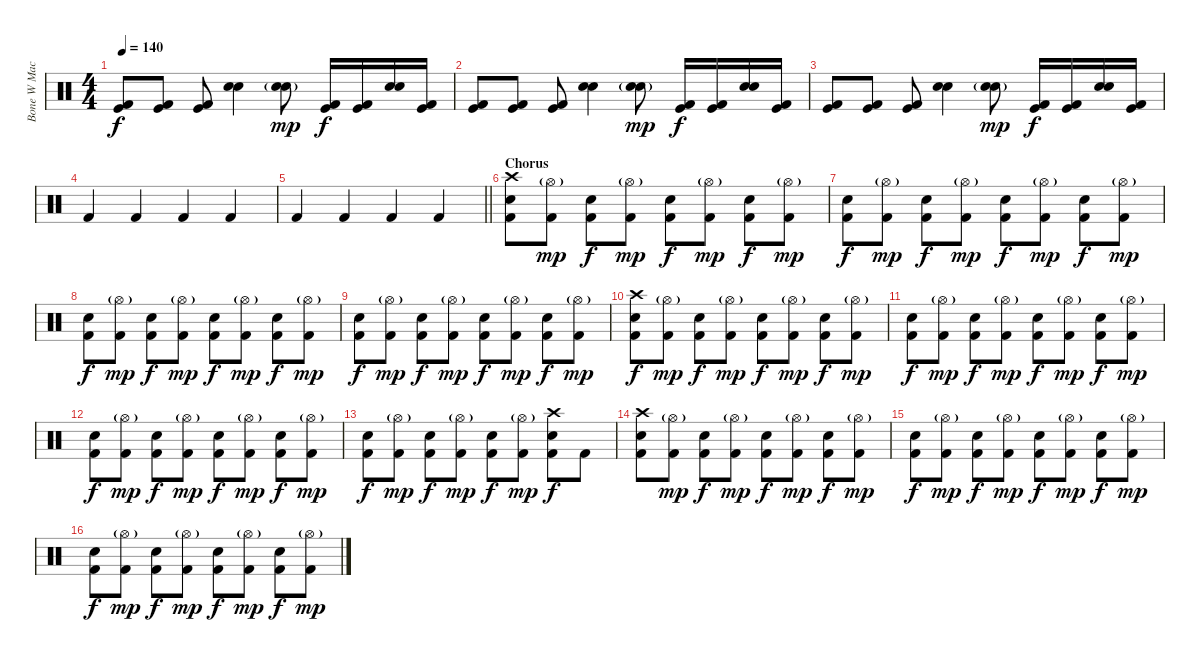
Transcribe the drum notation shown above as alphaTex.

\track ("Bone W Machine" "Bone W Mac") {instrument percussion}
\staff {score}
\articulation defaults
\ts (4 4)
\tempo 140
\clef neutral
\ks c
("Kick (hit)" "Kick (hit) 2").8{dy f} ("Kick (hit)" "Kick (hit) 2").8 ("Kick (hit)" "Kick (hit) 2").8 ("Snare (hit) 2" "Electric Snare (hit)").4 ("Snare (hit) 2"{g} "Electric Snare (hit)"{g}).8{dy mp} ("Kick (hit)" "Kick (hit) 2").16{dy f} ("Kick (hit)" "Kick (hit) 2").16 ("Snare (hit) 2" "Electric Snare (hit)").16 ("Kick (hit)" "Kick (hit) 2").16 |
("Kick (hit)" "Kick (hit) 2").8 ("Kick (hit)" "Kick (hit) 2").8 ("Kick (hit)" "Kick (hit) 2").8 ("Snare (hit) 2" "Electric Snare (hit)").4 ("Snare (hit) 2"{g} "Electric Snare (hit)"{g}).8{dy mp} ("Kick (hit)" "Kick (hit) 2").16{dy f} ("Kick (hit)" "Kick (hit) 2").16 ("Snare (hit) 2" "Electric Snare (hit)").16 ("Kick (hit)" "Kick (hit) 2").16 |
("Kick (hit)" "Kick (hit) 2").8 ("Kick (hit)" "Kick (hit) 2").8 ("Kick (hit)" "Kick (hit) 2").8 ("Snare (hit) 2" "Electric Snare (hit)").4 ("Snare (hit) 2"{g} "Electric Snare (hit)"{g}).8{dy mp} ("Kick (hit)" "Kick (hit) 2").16{dy f} ("Kick (hit)" "Kick (hit) 2").16 ("Snare (hit) 2" "Electric Snare (hit)").16 ("Kick (hit)" "Kick (hit) 2").16 |
"Kick (hit) 2".4 "Kick (hit) 2".4 "Kick (hit) 2".4 "Kick (hit) 2".4 |
\barLineRight lightlight "Kick (hit) 2".4 "Kick (hit) 2".4 "Kick (hit) 2".4 "Kick (hit) 2".4
|
\section ("" "Chorus")
("Crash high (hit)" "Electric Snare (hit)" "Kick (hit) 2").8 ("Hi-Hat (open)"{g} "Kick (hit) 2").8{dy mp} ("Electric Snare (hit)" "Kick (hit) 2").8{dy f} ("Hi-Hat (open)"{g} "Kick (hit) 2").8{dy mp} ("Electric Snare (hit)" "Kick (hit) 2").8{dy f} ("Hi-Hat (open)"{g} "Kick (hit) 2").8{dy mp} ("Electric Snare (hit)" "Kick (hit) 2").8{dy f} ("Hi-Hat (open)"{g} "Kick (hit) 2").8{dy mp} |
("Electric Snare (hit)" "Kick (hit) 2").8{dy f} ("Hi-Hat (open)"{g} "Kick (hit) 2").8{dy mp} ("Electric Snare (hit)" "Kick (hit) 2").8{dy f} ("Hi-Hat (open)"{g} "Kick (hit) 2").8{dy mp} ("Electric Snare (hit)" "Kick (hit) 2").8{dy f} ("Hi-Hat (open)"{g} "Kick (hit) 2").8{dy mp} ("Electric Snare (hit)" "Kick (hit) 2").8{dy f} ("Hi-Hat (open)"{g} "Kick (hit) 2").8{dy mp} |
("Electric Snare (hit)" "Kick (hit) 2").8{dy f} ("Hi-Hat (open)"{g} "Kick (hit) 2").8{dy mp} ("Electric Snare (hit)" "Kick (hit) 2").8{dy f} ("Hi-Hat (open)"{g} "Kick (hit) 2").8{dy mp} ("Electric Snare (hit)" "Kick (hit) 2").8{dy f} ("Hi-Hat (open)"{g} "Kick (hit) 2").8{dy mp} ("Electric Snare (hit)" "Kick (hit) 2").8{dy f} ("Hi-Hat (open)"{g} "Kick (hit) 2").8{dy mp} |
("Electric Snare (hit)" "Kick (hit) 2").8{dy f} ("Hi-Hat (open)"{g} "Kick (hit) 2").8{dy mp} ("Electric Snare (hit)" "Kick (hit) 2").8{dy f} ("Hi-Hat (open)"{g} "Kick (hit) 2").8{dy mp} ("Electric Snare (hit)" "Kick (hit) 2").8{dy f} ("Hi-Hat (open)"{g} "Kick (hit) 2").8{dy mp} ("Electric Snare (hit)" "Kick (hit) 2").8{dy f} ("Hi-Hat (open)"{g} "Kick (hit) 2").8{dy mp} |
("Crash high (hit)" "Electric Snare (hit)" "Kick (hit) 2").8{dy f} ("Hi-Hat (open)"{g} "Kick (hit) 2").8{dy mp} ("Electric Snare (hit)" "Kick (hit) 2").8{dy f} ("Hi-Hat (open)"{g} "Kick (hit) 2").8{dy mp} ("Electric Snare (hit)" "Kick (hit) 2").8{dy f} ("Hi-Hat (open)"{g} "Kick (hit) 2").8{dy mp} ("Electric Snare (hit)" "Kick (hit) 2").8{dy f} ("Hi-Hat (open)"{g} "Kick (hit) 2").8{dy mp} |
("Electric Snare (hit)" "Kick (hit) 2").8{dy f} ("Hi-Hat (open)"{g} "Kick (hit) 2").8{dy mp} ("Electric Snare (hit)" "Kick (hit) 2").8{dy f} ("Hi-Hat (open)"{g} "Kick (hit) 2").8{dy mp} ("Electric Snare (hit)" "Kick (hit) 2").8{dy f} ("Hi-Hat (open)"{g} "Kick (hit) 2").8{dy mp} ("Electric Snare (hit)" "Kick (hit) 2").8{dy f} ("Hi-Hat (open)"{g} "Kick (hit) 2").8{dy mp} |
("Electric Snare (hit)" "Kick (hit) 2").8{dy f} ("Hi-Hat (open)"{g} "Kick (hit) 2").8{dy mp} ("Electric Snare (hit)" "Kick (hit) 2").8{dy f} ("Hi-Hat (open)"{g} "Kick (hit) 2").8{dy mp} ("Electric Snare (hit)" "Kick (hit) 2").8{dy f} ("Hi-Hat (open)"{g} "Kick (hit) 2").8{dy mp} ("Electric Snare (hit)" "Kick (hit) 2").8{dy f} ("Hi-Hat (open)"{g} "Kick (hit) 2").8{dy mp} |
("Electric Snare (hit)" "Kick (hit) 2").8{dy f} ("Hi-Hat (open)"{g} "Kick (hit) 2").8{dy mp} ("Electric Snare (hit)" "Kick (hit) 2").8{dy f} ("Hi-Hat (open)"{g} "Kick (hit) 2").8{dy mp} ("Electric Snare (hit)" "Kick (hit) 2").8{dy f} ("Hi-Hat (open)"{g} "Kick (hit) 2").8{dy mp} ("Crash high (hit)" "Electric Snare (hit)" "Kick (hit) 2").8{dy f} "Kick (hit) 2".8 |
("Crash high (hit)" "Electric Snare (hit)" "Kick (hit) 2").8 ("Hi-Hat (open)"{g} "Kick (hit) 2").8{dy mp} ("Electric Snare (hit)" "Kick (hit) 2").8{dy f} ("Hi-Hat (open)"{g} "Kick (hit) 2").8{dy mp} ("Electric Snare (hit)" "Kick (hit) 2").8{dy f} ("Hi-Hat (open)"{g} "Kick (hit) 2").8{dy mp} ("Electric Snare (hit)" "Kick (hit) 2").8{dy f} ("Hi-Hat (open)"{g} "Kick (hit) 2").8{dy mp} |
("Electric Snare (hit)" "Kick (hit) 2").8{dy f} ("Hi-Hat (open)"{g} "Kick (hit) 2").8{dy mp} ("Electric Snare (hit)" "Kick (hit) 2").8{dy f} ("Hi-Hat (open)"{g} "Kick (hit) 2").8{dy mp} ("Electric Snare (hit)" "Kick (hit) 2").8{dy f} ("Hi-Hat (open)"{g} "Kick (hit) 2").8{dy mp} ("Electric Snare (hit)" "Kick (hit) 2").8{dy f} ("Hi-Hat (open)"{g} "Kick (hit) 2").8{dy mp} |
("Electric Snare (hit)" "Kick (hit) 2").8{dy f} ("Hi-Hat (open)"{g} "Kick (hit) 2").8{dy mp} ("Electric Snare (hit)" "Kick (hit) 2").8{dy f} ("Hi-Hat (open)"{g} "Kick (hit) 2").8{dy mp} ("Electric Snare (hit)" "Kick (hit) 2").8{dy f} ("Hi-Hat (open)"{g} "Kick (hit) 2").8{dy mp} ("Electric Snare (hit)" "Kick (hit) 2").8{dy f} ("Hi-Hat (open)"{g} "Kick (hit) 2").8{dy mp}
